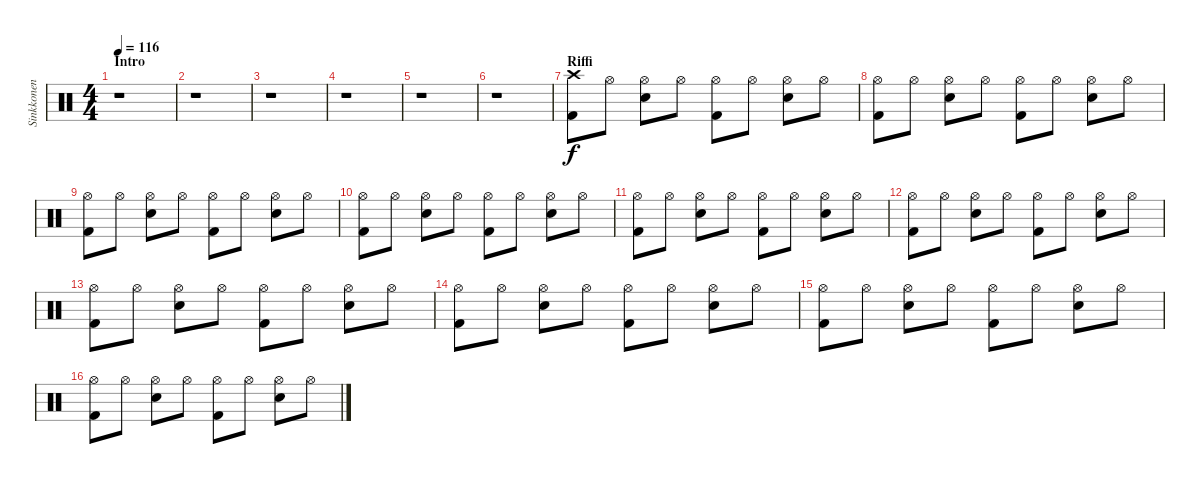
\track ("Sinkkonen" "Sinkkonen") {instrument percussion}
\staff {score}
\articulation defaults
\ts (4 4)
\section ("" "Intro")
\tempo 116
\clef neutral
\ks c
r.1{dy f} |
r.1 |
r.1 |
r.1 |
r.1 |
r.1 |
\section ("" "Riffi")
("Kick (hit) 2" "Crash high (hit)").8 "Hi-Hat (open)".8 ("Hi-Hat (open)" "Snare (hit) 2").8 "Hi-Hat (open)".8 ("Kick (hit) 2" "Hi-Hat (open)").8 "Hi-Hat (open)".8 ("Hi-Hat (open)" "Snare (hit) 2").8 "Hi-Hat (open)".8 |
("Kick (hit) 2" "Hi-Hat (open)").8 "Hi-Hat (open)".8 ("Hi-Hat (open)" "Snare (hit) 2").8 "Hi-Hat (open)".8 ("Kick (hit) 2" "Hi-Hat (open)").8 "Hi-Hat (open)".8 ("Hi-Hat (open)" "Snare (hit) 2").8 "Hi-Hat (open)".8 |
("Kick (hit) 2" "Hi-Hat (open)").8 "Hi-Hat (open)".8 ("Hi-Hat (open)" "Snare (hit) 2").8 "Hi-Hat (open)".8 ("Kick (hit) 2" "Hi-Hat (open)").8 "Hi-Hat (open)".8 ("Hi-Hat (open)" "Snare (hit) 2").8 "Hi-Hat (open)".8 |
("Kick (hit) 2" "Hi-Hat (open)").8 "Hi-Hat (open)".8 ("Hi-Hat (open)" "Snare (hit) 2").8 "Hi-Hat (open)".8 ("Kick (hit) 2" "Hi-Hat (open)").8 "Hi-Hat (open)".8 ("Hi-Hat (open)" "Snare (hit) 2").8 "Hi-Hat (open)".8 |
("Kick (hit) 2" "Hi-Hat (open)").8 "Hi-Hat (open)".8 ("Hi-Hat (open)" "Snare (hit) 2").8 "Hi-Hat (open)".8 ("Kick (hit) 2" "Hi-Hat (open)").8 "Hi-Hat (open)".8 ("Hi-Hat (open)" "Snare (hit) 2").8 "Hi-Hat (open)".8 |
("Kick (hit) 2" "Hi-Hat (open)").8 "Hi-Hat (open)".8 ("Hi-Hat (open)" "Snare (hit) 2").8 "Hi-Hat (open)".8 ("Kick (hit) 2" "Hi-Hat (open)").8 "Hi-Hat (open)".8 ("Hi-Hat (open)" "Snare (hit) 2").8 "Hi-Hat (open)".8 |
("Kick (hit) 2" "Hi-Hat (open)").8 "Hi-Hat (open)".8 ("Hi-Hat (open)" "Snare (hit) 2").8 "Hi-Hat (open)".8 ("Kick (hit) 2" "Hi-Hat (open)").8 "Hi-Hat (open)".8 ("Hi-Hat (open)" "Snare (hit) 2").8 "Hi-Hat (open)".8 |
("Kick (hit) 2" "Hi-Hat (open)").8 "Hi-Hat (open)".8 ("Hi-Hat (open)" "Snare (hit) 2").8 "Hi-Hat (open)".8 ("Kick (hit) 2" "Hi-Hat (open)").8 "Hi-Hat (open)".8 ("Hi-Hat (open)" "Snare (hit) 2").8 "Hi-Hat (open)".8 |
("Kick (hit) 2" "Hi-Hat (open)").8 "Hi-Hat (open)".8 ("Hi-Hat (open)" "Snare (hit) 2").8 "Hi-Hat (open)".8 ("Kick (hit) 2" "Hi-Hat (open)").8 "Hi-Hat (open)".8 ("Hi-Hat (open)" "Snare (hit) 2").8 "Hi-Hat (open)".8 |
("Kick (hit) 2" "Hi-Hat (open)").8 "Hi-Hat (open)".8 ("Hi-Hat (open)" "Snare (hit) 2").8 "Hi-Hat (open)".8 ("Kick (hit) 2" "Hi-Hat (open)").8 "Hi-Hat (open)".8 ("Hi-Hat (open)" "Snare (hit) 2").8 "Hi-Hat (open)".8
